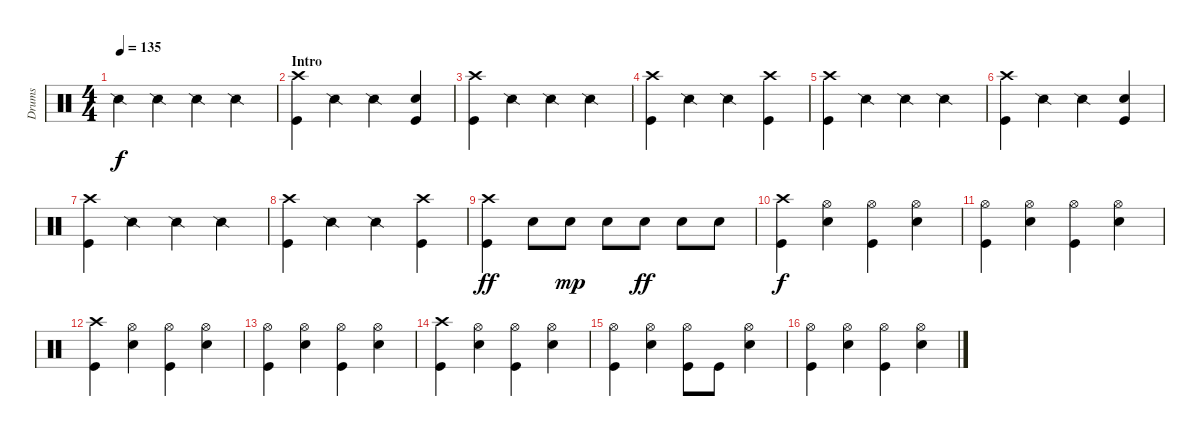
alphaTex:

\track ("Drums" "Drums") {instrument percussion}
\staff {score}
\articulation defaults
\ts (4 4)
\tempo 135
\clef neutral
\ks c "Snare (side stick) 2".4{dy f} "Snare (side stick) 2".4 "Snare (side stick) 2".4 "Snare (side stick) 2".4
|
\section ("" "Intro")
("Crash high (hit)" "Kick (hit)").4 "Snare (side stick) 2".4 "Snare (side stick) 2".4 ("Snare (hit) 2" "Kick (hit)").4 |
("Crash high (hit)" "Kick (hit)").4 "Snare (side stick) 2".4 "Snare (side stick) 2".4 "Snare (side stick) 2".4 |
("Crash high (hit)" "Kick (hit)").4 "Snare (side stick) 2".4 "Snare (side stick) 2".4 ("Crash high (hit)" "Kick (hit)").4 |
("Crash high (hit)" "Kick (hit)").4 "Snare (side stick) 2".4 "Snare (side stick) 2".4 "Snare (side stick) 2".4 |
("Crash high (hit)" "Kick (hit)").4 "Snare (side stick) 2".4 "Snare (side stick) 2".4 ("Snare (hit) 2" "Kick (hit)").4 |
("Crash high (hit)" "Kick (hit)").4 "Snare (side stick) 2".4 "Snare (side stick) 2".4 "Snare (side stick) 2".4 |
("Crash high (hit)" "Kick (hit)").4 "Snare (side stick) 2".4 "Snare (side stick) 2".4 ("Crash high (hit)" "Kick (hit)").4 |
("Crash high (hit)" "Kick (hit)").4{dy ff} "Snare (hit) 2".8 "Snare (hit) 2".8{dy mp} "Snare (hit) 2".8 "Snare (hit) 2".8{dy ff} "Snare (hit) 2".8 "Snare (hit) 2".8 |
("Crash high (hit)" "Kick (hit)").4{dy f} ("Hi-Hat (open)" "Snare (hit) 2").4 ("Hi-Hat (open)" "Kick (hit)").4 ("Hi-Hat (open)" "Snare (hit) 2").4 |
("Hi-Hat (open)" "Kick (hit)").4 ("Hi-Hat (open)" "Snare (hit) 2").4 ("Hi-Hat (open)" "Kick (hit)").4 ("Hi-Hat (open)" "Snare (hit) 2").4 |
("Crash high (hit)" "Kick (hit)").4 ("Hi-Hat (open)" "Snare (hit) 2").4 ("Hi-Hat (open)" "Kick (hit)").4 ("Hi-Hat (open)" "Snare (hit) 2").4 |
("Hi-Hat (open)" "Kick (hit)").4 ("Hi-Hat (open)" "Snare (hit) 2").4 ("Hi-Hat (open)" "Kick (hit)").4 ("Hi-Hat (open)" "Snare (hit) 2").4 |
("Crash high (hit)" "Kick (hit)").4 ("Hi-Hat (open)" "Snare (hit) 2").4 ("Hi-Hat (open)" "Kick (hit)").4 ("Hi-Hat (open)" "Snare (hit) 2").4 |
("Hi-Hat (open)" "Kick (hit)").4 ("Hi-Hat (open)" "Snare (hit) 2").4 ("Hi-Hat (open)" "Kick (hit)").8 "Kick (hit)".8 ("Hi-Hat (open)" "Snare (hit) 2").4 |
("Hi-Hat (open)" "Kick (hit)").4 ("Hi-Hat (open)" "Snare (hit) 2").4 ("Hi-Hat (open)" "Kick (hit)").4 ("Hi-Hat (open)" "Snare (hit) 2").4
